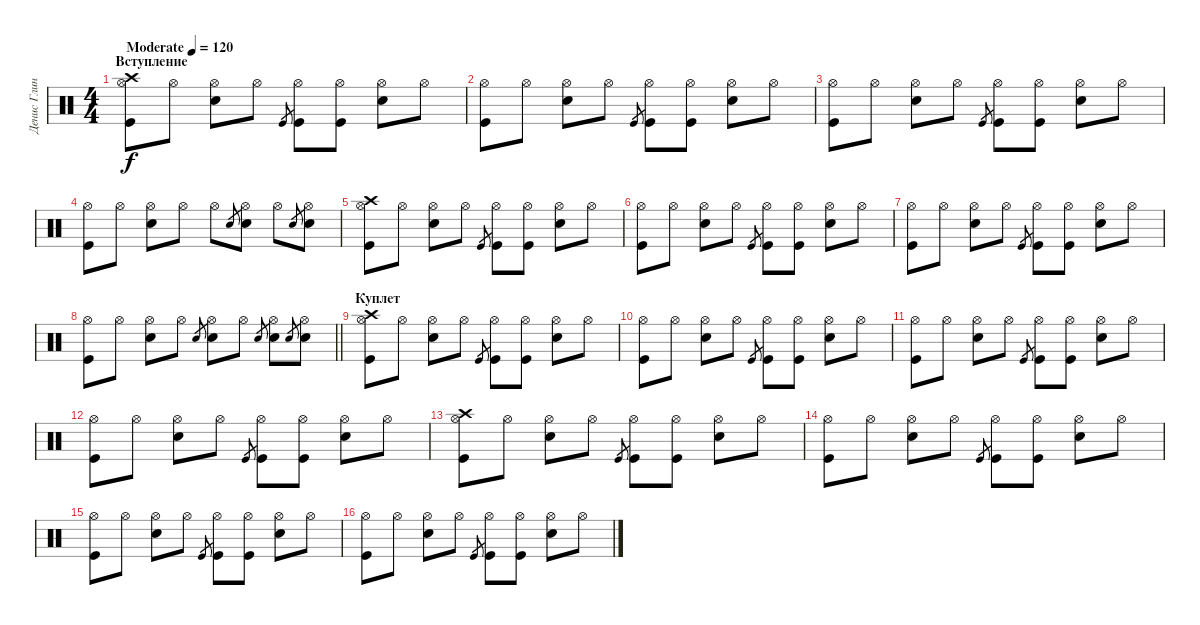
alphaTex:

\track ("Денис Глинин" "Денис Глин") {instrument percussion}
\staff {score}
\articulation defaults
\ts (4 4)
\section ("" "Вступление")
\tempo (120 "Moderate")
\clef neutral
\ks c
("Hi-Hat (open)" "Crash high (hit)" "Kick (hit)").8{dy f} "Hi-Hat (open)".8 ("Hi-Hat (open)" "Snare (hit) 2").8 "Hi-Hat (open)".8 "Kick (hit)".8{gr} ("Hi-Hat (open)" "Kick (hit)").8 ("Hi-Hat (open)" "Kick (hit)").8 ("Hi-Hat (open)" "Snare (hit) 2").8 "Hi-Hat (open)".8 |
("Hi-Hat (open)" "Kick (hit)").8 "Hi-Hat (open)".8 ("Hi-Hat (open)" "Snare (hit) 2").8 "Hi-Hat (open)".8 "Kick (hit)".8{gr} ("Hi-Hat (open)" "Kick (hit)").8 ("Hi-Hat (open)" "Kick (hit)").8 ("Hi-Hat (open)" "Snare (hit) 2").8 "Hi-Hat (open)".8 |
("Hi-Hat (open)" "Kick (hit)").8 "Hi-Hat (open)".8 ("Hi-Hat (open)" "Snare (hit) 2").8 "Hi-Hat (open)".8 "Kick (hit)".8{gr} ("Hi-Hat (open)" "Kick (hit)").8 ("Hi-Hat (open)" "Kick (hit)").8 ("Hi-Hat (open)" "Snare (hit) 2").8 "Hi-Hat (open)".8 |
("Hi-Hat (open)" "Kick (hit)").8 "Hi-Hat (open)".8 ("Hi-Hat (open)" "Snare (hit) 2").8 "Hi-Hat (open)".8 "Hi-Hat (open)".8 "Snare (hit) 2".8{gr} ("Hi-Hat (open)" "Snare (hit) 2").8 "Hi-Hat (open)".8 "Snare (hit) 2".8{gr} ("Hi-Hat (open)" "Snare (hit) 2").8 |
("Hi-Hat (open)" "Crash high (hit)" "Kick (hit)").8 "Hi-Hat (open)".8 ("Hi-Hat (open)" "Snare (hit) 2").8 "Hi-Hat (open)".8 "Kick (hit)".8{gr} ("Hi-Hat (open)" "Kick (hit)").8 ("Hi-Hat (open)" "Kick (hit)").8 ("Hi-Hat (open)" "Snare (hit) 2").8 "Hi-Hat (open)".8 |
("Hi-Hat (open)" "Kick (hit)").8 "Hi-Hat (open)".8 ("Hi-Hat (open)" "Snare (hit) 2").8 "Hi-Hat (open)".8 "Kick (hit)".8{gr} ("Hi-Hat (open)" "Kick (hit)").8 ("Hi-Hat (open)" "Kick (hit)").8 ("Hi-Hat (open)" "Snare (hit) 2").8 "Hi-Hat (open)".8 |
("Hi-Hat (open)" "Kick (hit)").8 "Hi-Hat (open)".8 ("Hi-Hat (open)" "Snare (hit) 2").8 "Hi-Hat (open)".8 "Kick (hit)".8{gr} ("Hi-Hat (open)" "Kick (hit)").8 ("Hi-Hat (open)" "Kick (hit)").8 ("Hi-Hat (open)" "Snare (hit) 2").8 "Hi-Hat (open)".8 |
\barLineRight lightlight
("Hi-Hat (open)" "Kick (hit)").8 "Hi-Hat (open)".8 ("Hi-Hat (open)" "Snare (hit) 2").8 "Hi-Hat (open)".8 "Snare (hit) 2".8{gr} ("Hi-Hat (open)" "Snare (hit) 2").8 "Hi-Hat (open)".8 "Snare (hit) 2".8{gr} ("Hi-Hat (open)" "Snare (hit) 2").8 "Snare (hit) 2".8{gr} ("Hi-Hat (open)" "Snare (hit) 2").8 |
\section ("" "Куплет")
("Hi-Hat (open)" "Crash high (hit)" "Kick (hit)").8 "Hi-Hat (open)".8 ("Hi-Hat (open)" "Snare (hit) 2").8 "Hi-Hat (open)".8 "Kick (hit)".8{gr} ("Hi-Hat (open)" "Kick (hit)").8 ("Hi-Hat (open)" "Kick (hit)").8 ("Hi-Hat (open)" "Snare (hit) 2").8 "Hi-Hat (open)".8 |
("Hi-Hat (open)" "Kick (hit)").8 "Hi-Hat (open)".8 ("Hi-Hat (open)" "Snare (hit) 2").8 "Hi-Hat (open)".8 "Kick (hit)".8{gr} ("Hi-Hat (open)" "Kick (hit)").8 ("Hi-Hat (open)" "Kick (hit)").8 ("Hi-Hat (open)" "Snare (hit) 2").8 "Hi-Hat (open)".8 |
("Hi-Hat (open)" "Kick (hit)").8 "Hi-Hat (open)".8 ("Hi-Hat (open)" "Snare (hit) 2").8 "Hi-Hat (open)".8 "Kick (hit)".8{gr} ("Hi-Hat (open)" "Kick (hit)").8 ("Hi-Hat (open)" "Kick (hit)").8 ("Hi-Hat (open)" "Snare (hit) 2").8 "Hi-Hat (open)".8 |
("Hi-Hat (open)" "Kick (hit)").8 "Hi-Hat (open)".8 ("Hi-Hat (open)" "Snare (hit) 2").8 "Hi-Hat (open)".8 "Kick (hit)".8{gr} ("Hi-Hat (open)" "Kick (hit)").8 ("Hi-Hat (open)" "Kick (hit)").8 ("Hi-Hat (open)" "Snare (hit) 2").8 "Hi-Hat (open)".8 |
("Hi-Hat (open)" "Crash high (hit)" "Kick (hit)").8 "Hi-Hat (open)".8 ("Hi-Hat (open)" "Snare (hit) 2").8 "Hi-Hat (open)".8 "Kick (hit)".8{gr} ("Hi-Hat (open)" "Kick (hit)").8 ("Hi-Hat (open)" "Kick (hit)").8 ("Hi-Hat (open)" "Snare (hit) 2").8 "Hi-Hat (open)".8 |
("Hi-Hat (open)" "Kick (hit)").8 "Hi-Hat (open)".8 ("Hi-Hat (open)" "Snare (hit) 2").8 "Hi-Hat (open)".8 "Kick (hit)".8{gr} ("Hi-Hat (open)" "Kick (hit)").8 ("Hi-Hat (open)" "Kick (hit)").8 ("Hi-Hat (open)" "Snare (hit) 2").8 "Hi-Hat (open)".8 |
("Hi-Hat (open)" "Kick (hit)").8 "Hi-Hat (open)".8 ("Hi-Hat (open)" "Snare (hit) 2").8 "Hi-Hat (open)".8 "Kick (hit)".8{gr} ("Hi-Hat (open)" "Kick (hit)").8 ("Hi-Hat (open)" "Kick (hit)").8 ("Hi-Hat (open)" "Snare (hit) 2").8 "Hi-Hat (open)".8 |
("Hi-Hat (open)" "Kick (hit)").8 "Hi-Hat (open)".8 ("Hi-Hat (open)" "Snare (hit) 2").8 "Hi-Hat (open)".8 "Kick (hit)".8{gr} ("Hi-Hat (open)" "Kick (hit)").8 ("Hi-Hat (open)" "Kick (hit)").8 ("Hi-Hat (open)" "Snare (hit) 2").8 "Hi-Hat (open)".8
